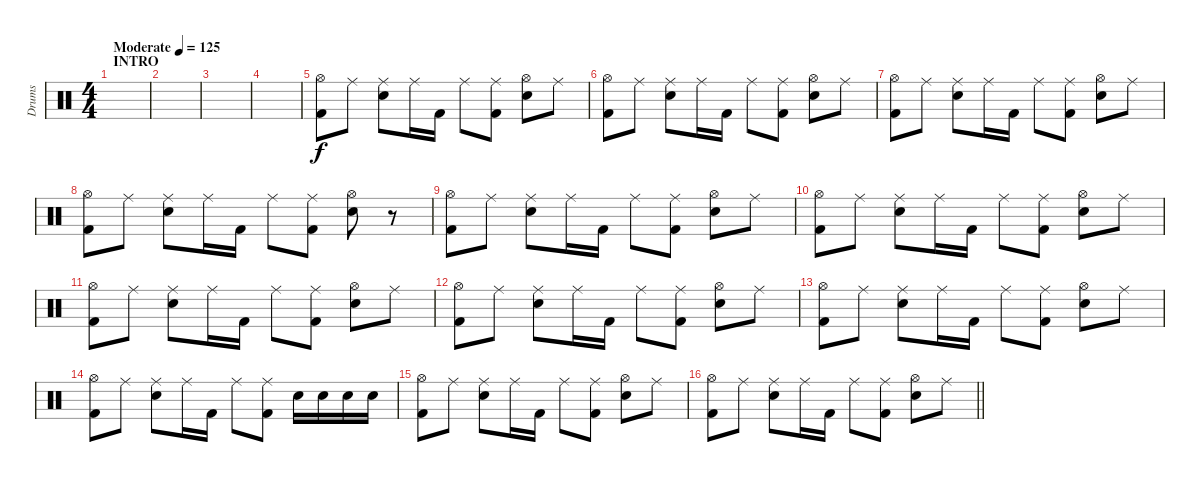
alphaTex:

\track ("Drums" "Drums") {instrument percussion}
\staff {score}
\articulation defaults
\ts (4 4)
\section ("" "INTRO")
\tempo (125 "Moderate")
\clef neutral
\ks c
|
|
|
|
("Hi-Hat (open)" "Kick (hit) 2").8 "Ride (middle)".8 ("Ride (middle)" "Snare (hit) 2").8 "Ride (middle)".16 "Kick (hit) 2".16 "Ride (middle)".8 ("Ride (middle)" "Kick (hit) 2").8 ("Hi-Hat (open)" "Snare (hit) 2").8 "Ride (middle)".8 |
("Hi-Hat (open)" "Kick (hit) 2").8 "Ride (middle)".8 ("Ride (middle)" "Snare (hit) 2").8 "Ride (middle)".16 "Kick (hit) 2".16 "Ride (middle)".8 ("Ride (middle)" "Kick (hit) 2").8 ("Hi-Hat (open)" "Snare (hit) 2").8 "Ride (middle)".8 |
("Hi-Hat (open)" "Kick (hit) 2").8 "Ride (middle)".8 ("Ride (middle)" "Snare (hit) 2").8 "Ride (middle)".16 "Kick (hit) 2".16 "Ride (middle)".8 ("Ride (middle)" "Kick (hit) 2").8 ("Hi-Hat (open)" "Snare (hit) 2").8 "Ride (middle)".8 |
("Hi-Hat (open)" "Kick (hit) 2").8 "Ride (middle)".8 ("Ride (middle)" "Snare (hit) 2").8 "Ride (middle)".16 "Kick (hit) 2".16 "Ride (middle)".8 ("Ride (middle)" "Kick (hit) 2").8 ("Hi-Hat (open)" "Snare (hit) 2").8 r.8 |
("Hi-Hat (open)" "Kick (hit) 2").8 "Ride (middle)".8 ("Ride (middle)" "Snare (hit) 2").8 "Ride (middle)".16 "Kick (hit) 2".16 "Ride (middle)".8 ("Ride (middle)" "Kick (hit) 2").8 ("Hi-Hat (open)" "Snare (hit) 2").8 "Ride (middle)".8 |
("Hi-Hat (open)" "Kick (hit) 2").8 "Ride (middle)".8 ("Ride (middle)" "Snare (hit) 2").8 "Ride (middle)".16 "Kick (hit) 2".16 "Ride (middle)".8 ("Ride (middle)" "Kick (hit) 2").8 ("Hi-Hat (open)" "Snare (hit) 2").8 "Ride (middle)".8 |
("Hi-Hat (open)" "Kick (hit) 2").8 "Ride (middle)".8 ("Ride (middle)" "Snare (hit) 2").8 "Ride (middle)".16 "Kick (hit) 2".16 "Ride (middle)".8 ("Ride (middle)" "Kick (hit) 2").8 ("Hi-Hat (open)" "Snare (hit) 2").8 "Ride (middle)".8 |
("Hi-Hat (open)" "Kick (hit) 2").8 "Ride (middle)".8 ("Ride (middle)" "Snare (hit) 2").8 "Ride (middle)".16 "Kick (hit) 2".16 "Ride (middle)".8 ("Ride (middle)" "Kick (hit) 2").8 ("Hi-Hat (open)" "Snare (hit) 2").8 "Ride (middle)".8 |
("Hi-Hat (open)" "Kick (hit) 2").8 "Ride (middle)".8 ("Ride (middle)" "Snare (hit) 2").8 "Ride (middle)".16 "Kick (hit) 2".16 "Ride (middle)".8 ("Ride (middle)" "Kick (hit) 2").8 ("Hi-Hat (open)" "Snare (hit) 2").8 "Ride (middle)".8 |
("Hi-Hat (open)" "Kick (hit) 2").8 "Ride (middle)".8 ("Ride (middle)" "Snare (hit) 2").8 "Ride (middle)".16 "Kick (hit) 2".16 "Ride (middle)".8 ("Ride (middle)" "Kick (hit) 2").8 "Snare (hit) 2".16 "Snare (hit) 2".16 "Snare (hit) 2".16 "Snare (hit) 2".16 |
("Hi-Hat (open)" "Kick (hit) 2").8 "Ride (middle)".8 ("Ride (middle)" "Snare (hit) 2").8 "Ride (middle)".16 "Kick (hit) 2".16 "Ride (middle)".8 ("Ride (middle)" "Kick (hit) 2").8 ("Hi-Hat (open)" "Snare (hit) 2").8 "Ride (middle)".8 |
\barLineRight lightlight
("Hi-Hat (open)" "Kick (hit) 2").8 "Ride (middle)".8 ("Ride (middle)" "Snare (hit) 2").8 "Ride (middle)".16 "Kick (hit) 2".16 "Ride (middle)".8 ("Ride (middle)" "Kick (hit) 2").8 ("Hi-Hat (open)" "Snare (hit) 2").8 "Ride (middle)".8
